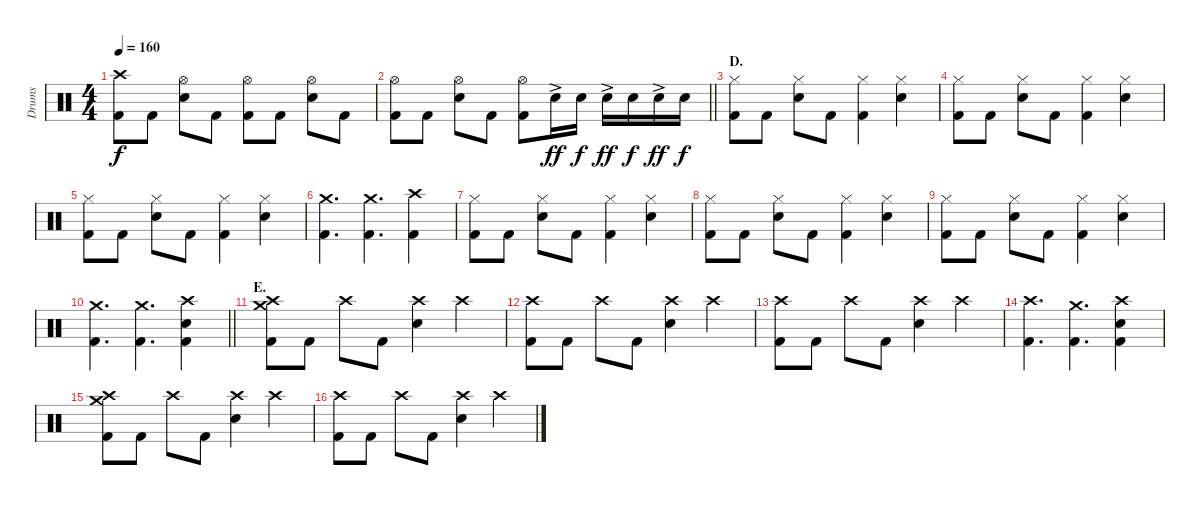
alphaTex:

\track ("Drums" "Drums") {instrument percussion}
\staff {score}
\articulation defaults
\ts (4 4)
\tempo 160
\clef neutral
\ks c
("Crash high (hit)" "Kick (hit) 2").8{dy f} "Kick (hit) 2".8 ("Hi-Hat (open)" "Electric Snare (hit)").8 "Kick (hit) 2".8 ("Hi-Hat (open)" "Kick (hit) 2").8 "Kick (hit) 2".8 ("Hi-Hat (open)" "Electric Snare (hit)").8 "Kick (hit) 2".8 |
\barLineRight lightlight
("Hi-Hat (open)" "Kick (hit) 2").8 "Kick (hit) 2".8 ("Hi-Hat (open)" "Electric Snare (hit)").8 "Kick (hit) 2".8 ("Hi-Hat (open)" "Kick (hit) 2").8 "Electric Snare (hit)"{ac}.16{dy ff} "Electric Snare (hit)".16{dy f} "Electric Snare (hit)"{ac}.16{dy ff} "Electric Snare (hit)".16{dy f} "Electric Snare (hit)"{ac}.16{dy ff} "Electric Snare (hit)".16{dy f} |
\section ("" "D.")
("Hi-Hat (closed)" "Kick (hit) 2").8 "Kick (hit) 2".8 ("Hi-Hat (closed)" "Electric Snare (hit)").8 "Kick (hit) 2".8 ("Hi-Hat (closed)" "Kick (hit) 2").4 ("Hi-Hat (closed)" "Electric Snare (hit)").4 |
("Hi-Hat (closed)" "Kick (hit) 2").8 "Kick (hit) 2".8 ("Hi-Hat (closed)" "Electric Snare (hit)").8 "Kick (hit) 2".8 ("Hi-Hat (closed)" "Kick (hit) 2").4 ("Hi-Hat (closed)" "Electric Snare (hit)").4 |
("Hi-Hat (closed)" "Kick (hit) 2").8 "Kick (hit) 2".8 ("Hi-Hat (closed)" "Electric Snare (hit)").8 "Kick (hit) 2".8 ("Hi-Hat (closed)" "Kick (hit) 2").4 ("Hi-Hat (closed)" "Electric Snare (hit)").4 |
("Crash medium (hit)" "Kick (hit) 2").4{d} ("Crash medium (hit)" "Kick (hit) 2").4{d} ("Crash high (hit)" "Kick (hit) 2").4 |
("Hi-Hat (closed)" "Kick (hit) 2").8 "Kick (hit) 2".8 ("Hi-Hat (closed)" "Electric Snare (hit)").8 "Kick (hit) 2".8 ("Hi-Hat (closed)" "Kick (hit) 2").4 ("Hi-Hat (closed)" "Electric Snare (hit)").4 |
("Hi-Hat (closed)" "Kick (hit) 2").8 "Kick (hit) 2".8 ("Hi-Hat (closed)" "Electric Snare (hit)").8 "Kick (hit) 2".8 ("Hi-Hat (closed)" "Kick (hit) 2").4 ("Hi-Hat (closed)" "Electric Snare (hit)").4 |
("Hi-Hat (closed)" "Kick (hit) 2").8 "Kick (hit) 2".8 ("Hi-Hat (closed)" "Electric Snare (hit)").8 "Kick (hit) 2".8 ("Hi-Hat (closed)" "Kick (hit) 2").4 ("Hi-Hat (closed)" "Electric Snare (hit)").4 |
\barLineRight lightlight
("Crash medium (hit)" "Kick (hit) 2").4{d} ("Crash medium (hit)" "Kick (hit) 2").4{d} ("Crash high (hit)" "Electric Snare (hit)" "Kick (hit) 2").4 |
\section ("" "E.")
("Crash medium (hit)" "Crash high (hit)" "Kick (hit) 2").8 "Kick (hit) 2".8 "Crash high (hit)".8 "Kick (hit) 2".8 ("Crash high (hit)" "Electric Snare (hit)").4 "Crash high (hit)".4 |
("Crash high (hit)" "Kick (hit) 2").8 "Kick (hit) 2".8 "Crash high (hit)".8 "Kick (hit) 2".8 ("Crash high (hit)" "Electric Snare (hit)").4 "Crash high (hit)".4 |
("Crash high (hit)" "Kick (hit) 2").8 "Kick (hit) 2".8 "Crash high (hit)".8 "Kick (hit) 2".8 ("Crash high (hit)" "Electric Snare (hit)").4 "Crash high (hit)".4 |
("Crash high (hit)" "Kick (hit) 2").4{d} ("Crash medium (hit)" "Kick (hit) 2").4{d} ("Crash high (hit)" "Electric Snare (hit)" "Kick (hit) 2").4 |
("Crash medium (hit)" "Crash high (hit)" "Kick (hit) 2").8 "Kick (hit) 2".8 "Crash high (hit)".8 "Kick (hit) 2".8 ("Crash high (hit)" "Electric Snare (hit)").4 "Crash high (hit)".4 |
("Crash high (hit)" "Kick (hit) 2").8 "Kick (hit) 2".8 "Crash high (hit)".8 "Kick (hit) 2".8 ("Crash high (hit)" "Electric Snare (hit)").4 "Crash high (hit)".4
